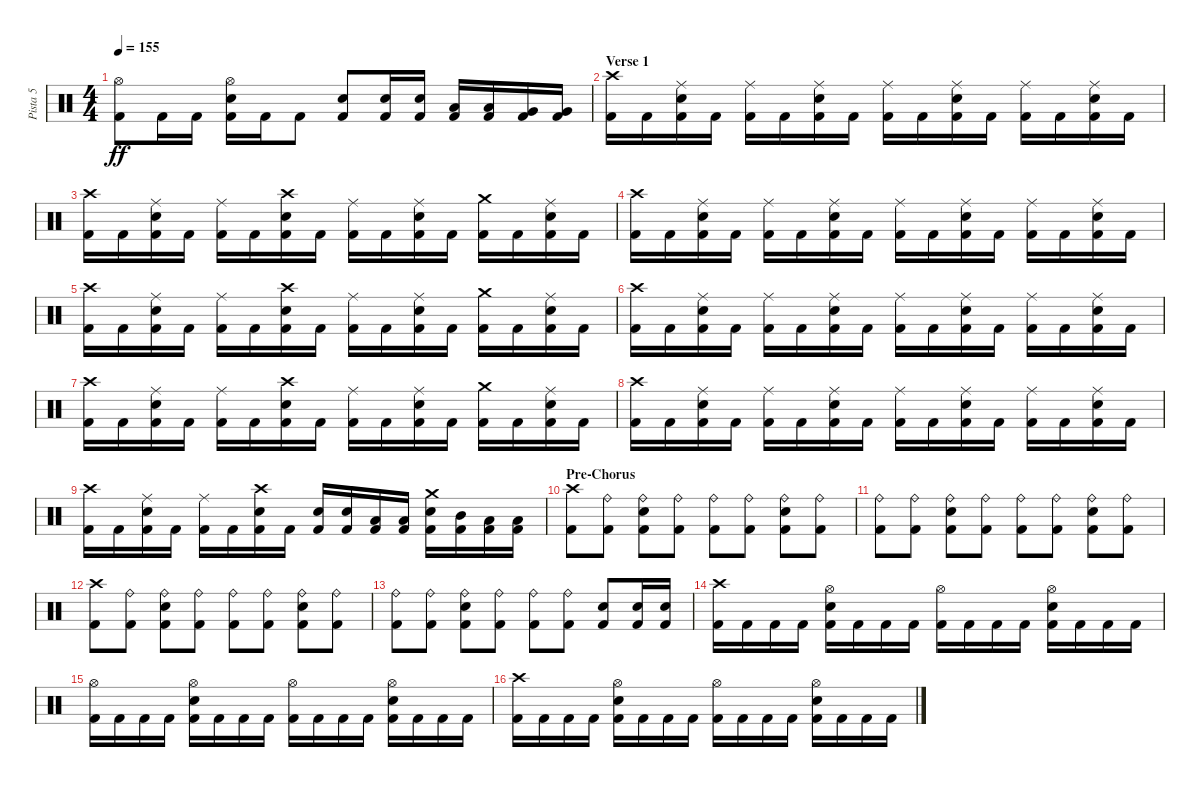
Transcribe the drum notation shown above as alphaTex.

\track ("Pista 5" "Pista 5") {instrument percussion}
\staff {score}
\articulation defaults
\ts (4 4)
\tempo 155
\clef neutral
\ks c
("Hi-Hat (open)" "Kick (hit) 2").8{dy ff} "Kick (hit) 2".16 "Kick (hit) 2".16 ("Hi-Hat (open)" "Electric Snare (hit)" "Kick (hit) 2").16 "Kick (hit) 2".16 "Kick (hit) 2".8 ("Electric Snare (hit)" "Kick (hit) 2").8 ("Electric Snare (hit)" "Kick (hit) 2").16 ("Electric Snare (hit)" "Kick (hit) 2").16 ("Low Tom (hit)" "Kick (hit) 2").16 ("Low Tom (hit)" "Kick (hit) 2").16 ("Very Low Tom (hit)" "Kick (hit) 2").16 ("Very Low Tom (hit)" "Kick (hit) 2").16 |
\section ("" "Verse 1")
("Crash high (hit)" "Kick (hit) 2").16 "Kick (hit) 2".16 ("Ride (middle)" "Electric Snare (hit)" "Kick (hit) 2").16 "Kick (hit) 2".16 ("Ride (middle)" "Kick (hit) 2").16 "Kick (hit) 2".16 ("Ride (middle)" "Electric Snare (hit)" "Kick (hit) 2").16 "Kick (hit) 2".16 ("Ride (middle)" "Kick (hit) 2").16 "Kick (hit) 2".16 ("Ride (middle)" "Electric Snare (hit)" "Kick (hit) 2").16 "Kick (hit) 2".16 ("Ride (middle)" "Kick (hit) 2").16 "Kick (hit) 2".16 ("Ride (middle)" "Electric Snare (hit)" "Kick (hit) 2").16 "Kick (hit) 2".16 |
("Crash high (hit)" "Kick (hit) 2").16 "Kick (hit) 2".16 ("Ride (middle)" "Electric Snare (hit)" "Kick (hit) 2").16 "Kick (hit) 2".16 ("Ride (middle)" "Kick (hit) 2").16 "Kick (hit) 2".16 ("Crash high (hit)" "Electric Snare (hit)" "Kick (hit) 2").16 "Kick (hit) 2".16 ("Ride (middle)" "Kick (hit) 2").16 "Kick (hit) 2".16 ("Ride (middle)" "Electric Snare (hit)" "Kick (hit) 2").16 "Kick (hit) 2".16 ("Crash medium (hit)" "Kick (hit) 2").16 "Kick (hit) 2".16 ("Ride (middle)" "Electric Snare (hit)" "Kick (hit) 2").16 "Kick (hit) 2".16 |
("Crash high (hit)" "Kick (hit) 2").16 "Kick (hit) 2".16 ("Ride (middle)" "Electric Snare (hit)" "Kick (hit) 2").16 "Kick (hit) 2".16 ("Ride (middle)" "Kick (hit) 2").16 "Kick (hit) 2".16 ("Ride (middle)" "Electric Snare (hit)" "Kick (hit) 2").16 "Kick (hit) 2".16 ("Ride (middle)" "Kick (hit) 2").16 "Kick (hit) 2".16 ("Ride (middle)" "Electric Snare (hit)" "Kick (hit) 2").16 "Kick (hit) 2".16 ("Ride (middle)" "Kick (hit) 2").16 "Kick (hit) 2".16 ("Ride (middle)" "Electric Snare (hit)" "Kick (hit) 2").16 "Kick (hit) 2".16 |
("Crash high (hit)" "Kick (hit) 2").16 "Kick (hit) 2".16 ("Ride (middle)" "Electric Snare (hit)" "Kick (hit) 2").16 "Kick (hit) 2".16 ("Ride (middle)" "Kick (hit) 2").16 "Kick (hit) 2".16 ("Crash high (hit)" "Electric Snare (hit)" "Kick (hit) 2").16 "Kick (hit) 2".16 ("Ride (middle)" "Kick (hit) 2").16 "Kick (hit) 2".16 ("Ride (middle)" "Electric Snare (hit)" "Kick (hit) 2").16 "Kick (hit) 2".16 ("Crash medium (hit)" "Kick (hit) 2").16 "Kick (hit) 2".16 ("Ride (middle)" "Electric Snare (hit)" "Kick (hit) 2").16 "Kick (hit) 2".16 |
("Crash high (hit)" "Kick (hit) 2").16 "Kick (hit) 2".16 ("Ride (middle)" "Electric Snare (hit)" "Kick (hit) 2").16 "Kick (hit) 2".16 ("Ride (middle)" "Kick (hit) 2").16 "Kick (hit) 2".16 ("Ride (middle)" "Electric Snare (hit)" "Kick (hit) 2").16 "Kick (hit) 2".16 ("Ride (middle)" "Kick (hit) 2").16 "Kick (hit) 2".16 ("Ride (middle)" "Electric Snare (hit)" "Kick (hit) 2").16 "Kick (hit) 2".16 ("Ride (middle)" "Kick (hit) 2").16 "Kick (hit) 2".16 ("Ride (middle)" "Electric Snare (hit)" "Kick (hit) 2").16 "Kick (hit) 2".16 |
("Crash high (hit)" "Kick (hit) 2").16 "Kick (hit) 2".16 ("Ride (middle)" "Electric Snare (hit)" "Kick (hit) 2").16 "Kick (hit) 2".16 ("Ride (middle)" "Kick (hit) 2").16 "Kick (hit) 2".16 ("Crash high (hit)" "Electric Snare (hit)" "Kick (hit) 2").16 "Kick (hit) 2".16 ("Ride (middle)" "Kick (hit) 2").16 "Kick (hit) 2".16 ("Ride (middle)" "Electric Snare (hit)" "Kick (hit) 2").16 "Kick (hit) 2".16 ("Crash medium (hit)" "Kick (hit) 2").16 "Kick (hit) 2".16 ("Ride (middle)" "Electric Snare (hit)" "Kick (hit) 2").16 "Kick (hit) 2".16 |
("Crash high (hit)" "Kick (hit) 2").16 "Kick (hit) 2".16 ("Ride (middle)" "Electric Snare (hit)" "Kick (hit) 2").16 "Kick (hit) 2".16 ("Ride (middle)" "Kick (hit) 2").16 "Kick (hit) 2".16 ("Ride (middle)" "Electric Snare (hit)" "Kick (hit) 2").16 "Kick (hit) 2".16 ("Ride (middle)" "Kick (hit) 2").16 "Kick (hit) 2".16 ("Ride (middle)" "Electric Snare (hit)" "Kick (hit) 2").16 "Kick (hit) 2".16 ("Ride (middle)" "Kick (hit) 2").16 "Kick (hit) 2".16 ("Ride (middle)" "Electric Snare (hit)" "Kick (hit) 2").16 "Kick (hit) 2".16 |
("Crash high (hit)" "Kick (hit) 2").16 "Kick (hit) 2".16 ("Ride (middle)" "Electric Snare (hit)" "Kick (hit) 2").16 "Kick (hit) 2".16 ("Ride (middle)" "Kick (hit) 2").16 "Kick (hit) 2".16 ("Crash high (hit)" "Electric Snare (hit)" "Kick (hit) 2").16 "Kick (hit) 2".16 ("Electric Snare (hit)" "Kick (hit) 2").16 ("Electric Snare (hit)" "Kick (hit) 2").16 ("Low Floor Tom (hit)" "Kick (hit) 2").16 ("Low Floor Tom (hit)" "Kick (hit) 2").16 ("Crash medium (hit)" "Electric Snare (hit)" "Kick (hit) 2").16 ("Mid Tom (hit)" "Kick (hit) 2").16 ("Low Tom (hit)" "Kick (hit) 2").16 ("Low Tom (hit)" "Kick (hit) 2").16 |
\section ("" "Pre-Chorus")
("Crash high (hit)" "Kick (hit) 2").8 ("Ride (bell)" "Kick (hit) 2").8 ("Ride (bell)" "Electric Snare (hit)" "Kick (hit) 2").8 ("Ride (bell)" "Kick (hit) 2").8 ("Ride (bell)" "Kick (hit) 2").8 ("Ride (bell)" "Kick (hit) 2").8 ("Ride (bell)" "Electric Snare (hit)" "Kick (hit) 2").8 ("Ride (bell)" "Kick (hit) 2").8 |
("Ride (bell)" "Kick (hit) 2").8 ("Ride (bell)" "Kick (hit) 2").8 ("Ride (bell)" "Electric Snare (hit)" "Kick (hit) 2").8 ("Ride (bell)" "Kick (hit) 2").8 ("Ride (bell)" "Kick (hit) 2").8 ("Ride (bell)" "Kick (hit) 2").8 ("Ride (bell)" "Electric Snare (hit)" "Kick (hit) 2").8 ("Ride (bell)" "Kick (hit) 2").8 |
("Crash high (hit)" "Kick (hit) 2").8 ("Ride (bell)" "Kick (hit) 2").8 ("Ride (bell)" "Electric Snare (hit)" "Kick (hit) 2").8 ("Ride (bell)" "Kick (hit) 2").8 ("Ride (bell)" "Kick (hit) 2").8 ("Ride (bell)" "Kick (hit) 2").8 ("Ride (bell)" "Electric Snare (hit)" "Kick (hit) 2").8 ("Ride (bell)" "Kick (hit) 2").8 |
("Ride (bell)" "Kick (hit) 2").8 ("Ride (bell)" "Kick (hit) 2").8 ("Ride (bell)" "Electric Snare (hit)" "Kick (hit) 2").8 ("Ride (bell)" "Kick (hit) 2").8 ("Ride (bell)" "Kick (hit) 2").8 ("Ride (bell)" "Kick (hit) 2").8 ("Electric Snare (hit)" "Kick (hit) 2").8 ("Electric Snare (hit)" "Kick (hit) 2").16 ("Electric Snare (hit)" "Kick (hit) 2").16 |
("Crash high (hit)" "Kick (hit) 2").16 "Kick (hit) 2".16 "Kick (hit) 2".16 "Kick (hit) 2".16 ("Hi-Hat (open)" "Electric Snare (hit)" "Kick (hit) 2").16 "Kick (hit) 2".16 "Kick (hit) 2".16 "Kick (hit) 2".16 ("Hi-Hat (open)" "Kick (hit) 2").16 "Kick (hit) 2".16 "Kick (hit) 2".16 "Kick (hit) 2".16 ("Hi-Hat (open)" "Electric Snare (hit)" "Kick (hit) 2").16 "Kick (hit) 2".16 "Kick (hit) 2".16 "Kick (hit) 2".16 |
("Hi-Hat (open)" "Kick (hit) 2").16 "Kick (hit) 2".16 "Kick (hit) 2".16 "Kick (hit) 2".16 ("Hi-Hat (open)" "Electric Snare (hit)" "Kick (hit) 2").16 "Kick (hit) 2".16 "Kick (hit) 2".16 "Kick (hit) 2".16 ("Hi-Hat (open)" "Kick (hit) 2").16 "Kick (hit) 2".16 "Kick (hit) 2".16 "Kick (hit) 2".16 ("Hi-Hat (open)" "Electric Snare (hit)" "Kick (hit) 2").16 "Kick (hit) 2".16 "Kick (hit) 2".16 "Kick (hit) 2".16 |
("Crash high (hit)" "Kick (hit) 2").16 "Kick (hit) 2".16 "Kick (hit) 2".16 "Kick (hit) 2".16 ("Hi-Hat (open)" "Electric Snare (hit)" "Kick (hit) 2").16 "Kick (hit) 2".16 "Kick (hit) 2".16 "Kick (hit) 2".16 ("Hi-Hat (open)" "Kick (hit) 2").16 "Kick (hit) 2".16 "Kick (hit) 2".16 "Kick (hit) 2".16 ("Hi-Hat (open)" "Electric Snare (hit)" "Kick (hit) 2").16 "Kick (hit) 2".16 "Kick (hit) 2".16 "Kick (hit) 2".16
